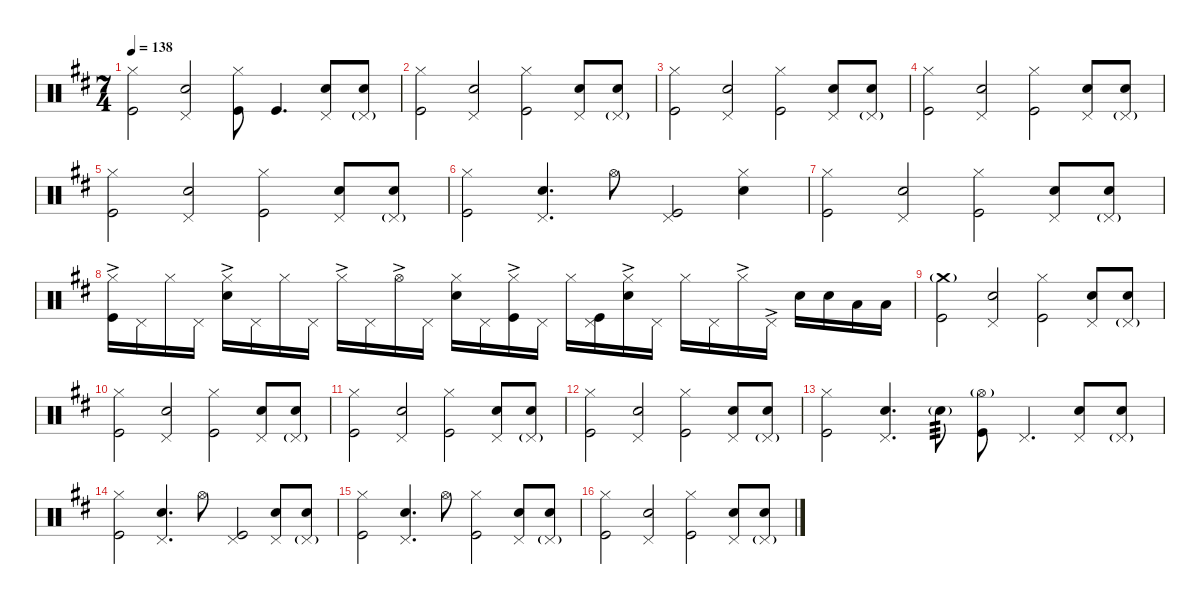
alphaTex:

\defaultSystemsLayout 4
\hideDynamics
\bracketExtendMode nobrackets
\singleTrackTrackNamePolicy hidden
\multiTrackTrackNamePolicy hidden
\firstSystemTrackNameMode fullname
\firstSystemTrackNameOrientation horizontal
\otherSystemsTrackNameOrientation horizontal
\track ("Drums" "drm.") {instrument percussion}
\staff {score}
\articulation defaults
\ts (7 4)
\tempo 138
\clef neutral
\ks d
("Hi-Hat (closed)"{acc forcenatural} "Kick (hit)"{acc forcenatural}).2{dy fff beam Down} ("Pedal Hi-Hat (hit)"{acc forcenatural} "Snare (hit) 2"{acc forcenatural}).2{beam Up} ("Hi-Hat (closed)"{acc forcenatural} "Kick (hit)"{acc forcenatural}).8{beam Down} "Kick (hit)"{acc forcenatural}.4{d beam Up} ("Pedal Hi-Hat (hit)"{acc forcenatural} "Snare (hit) 2"{acc forcenatural}).8{beam Up} ("Pedal Hi-Hat (hit)"{g acc forcenatural} "Snare (hit) 2"{acc forcenatural}).8{beam Up} |
("Hi-Hat (closed)"{acc forcenatural} "Kick (hit)"{acc forcenatural}).2{beam Down} ("Pedal Hi-Hat (hit)"{acc forcenatural} "Snare (hit) 2"{acc forcenatural}).2{beam Up} ("Hi-Hat (closed)"{acc forcenatural} "Kick (hit)"{acc forcenatural}).2{beam Down} ("Pedal Hi-Hat (hit)"{acc forcenatural} "Snare (hit) 2"{acc forcenatural}).8{beam Up} ("Pedal Hi-Hat (hit)"{g acc forcenatural} "Snare (hit) 2"{acc forcenatural}).8{beam Up} |
("Hi-Hat (closed)"{acc forcenatural} "Kick (hit)"{acc forcenatural}).2{beam Down} ("Pedal Hi-Hat (hit)"{acc forcenatural} "Snare (hit) 2"{acc forcenatural}).2{beam Up} ("Hi-Hat (closed)"{acc forcenatural} "Kick (hit)"{acc forcenatural}).2{beam Down} ("Pedal Hi-Hat (hit)"{acc forcenatural} "Snare (hit) 2"{acc forcenatural}).8{beam Up} ("Pedal Hi-Hat (hit)"{g acc forcenatural} "Snare (hit) 2"{acc forcenatural}).8{beam Up} |
("Hi-Hat (closed)"{acc forcenatural} "Kick (hit)"{acc forcenatural}).2{beam Down} ("Pedal Hi-Hat (hit)"{acc forcenatural} "Snare (hit) 2"{acc forcenatural}).2{beam Up} ("Hi-Hat (closed)"{acc forcenatural} "Kick (hit)"{acc forcenatural}).2{beam Down} ("Pedal Hi-Hat (hit)"{acc forcenatural} "Snare (hit) 2"{acc forcenatural}).8{beam Up} ("Pedal Hi-Hat (hit)"{g acc forcenatural} "Snare (hit) 2"{acc forcenatural}).8{beam Up} |
("Hi-Hat (closed)"{acc forcenatural} "Kick (hit)"{acc forcenatural}).2{beam Down} ("Pedal Hi-Hat (hit)"{acc forcenatural} "Snare (hit) 2"{acc forcenatural}).2{beam Up} ("Hi-Hat (closed)"{acc forcenatural} "Kick (hit)"{acc forcenatural}).2{beam Down} ("Pedal Hi-Hat (hit)"{acc forcenatural} "Snare (hit) 2"{acc forcenatural}).8{beam Up} ("Pedal Hi-Hat (hit)"{g acc forcenatural} "Snare (hit) 2"{acc forcenatural}).8{beam Up} |
("Hi-Hat (closed)"{acc forcenatural} "Kick (hit)"{acc forcenatural}).2{beam Down} ("Pedal Hi-Hat (hit)"{acc forcenatural} "Snare (hit) 2"{acc forcenatural}).4{d beam Up} "Hi-Hat (open)"{acc forcenatural}.8{beam Down} ("Pedal Hi-Hat (hit)"{acc forcenatural} "Kick (hit)"{acc forcenatural}).2{beam Up} ("Hi-Hat (closed)"{acc forcenatural} "Snare (hit) 2"{acc forcenatural}).4{beam Down} |
("Hi-Hat (closed)"{acc forcenatural} "Kick (hit)"{acc forcenatural}).2{beam Down} ("Pedal Hi-Hat (hit)"{acc forcenatural} "Snare (hit) 2"{acc forcenatural}).2{beam Up} ("Hi-Hat (closed)"{acc forcenatural} "Kick (hit)"{acc forcenatural}).2{beam Down} ("Pedal Hi-Hat (hit)"{acc forcenatural} "Snare (hit) 2"{acc forcenatural}).8{beam Up} ("Pedal Hi-Hat (hit)"{g acc forcenatural} "Snare (hit) 2"{acc forcenatural}).8{beam Up} |
("Hi-Hat (closed)"{ac acc forcenatural} "Kick (hit)"{acc forcenatural}).16{beam Down} "Pedal Hi-Hat (hit)"{acc forcenatural}.16{beam Down} "Hi-Hat (closed)"{acc forcenatural}.16{beam Down} "Pedal Hi-Hat (hit)"{acc forcenatural}.16{beam Down} ("Hi-Hat (closed)"{ac acc forcenatural} "Snare (hit) 2"{acc forcenatural}).16{beam Down} "Pedal Hi-Hat (hit)"{acc forcenatural}.16{beam Down} "Hi-Hat (closed)"{acc forcenatural}.16{beam Down} "Pedal Hi-Hat (hit)"{acc forcenatural}.16{beam Down} "Hi-Hat (closed)"{ac acc forcenatural}.16{dy ff beam Down} "Pedal Hi-Hat (hit)"{acc forcenatural}.16{dy fff beam Down} "Hi-Hat (open)"{ac acc forcenatural}.16{dy ff beam Down} "Pedal Hi-Hat (hit)"{acc forcenatural}.16{dy fff beam Down} ("Hi-Hat (closed)"{acc forcenatural} "Snare (hit) 2"{acc forcenatural}).16{beam Down} "Pedal Hi-Hat (hit)"{acc forcenatural}.16{beam Down} ("Hi-Hat (closed)"{ac acc forcenatural} "Kick (hit)"{acc forcenatural}).16{beam Down} "Pedal Hi-Hat (hit)"{acc forcenatural}.16{beam Down} "Hi-Hat (closed)"{acc forcenatural}.16{beam Down} ("Pedal Hi-Hat (hit)"{acc forcenatural} "Kick (hit)"{acc forcenatural}).16{beam Down} ("Hi-Hat (closed)"{ac acc forcenatural} "Snare (hit) 2"{acc forcenatural}).16{beam Down} "Pedal Hi-Hat (hit)"{acc forcenatural}.16{beam Down} "Hi-Hat (closed)"{acc forcenatural}.16{beam Down} "Pedal Hi-Hat (hit)"{acc forcenatural}.16{beam Down} "Hi-Hat (closed)"{ac acc forcenatural}.16{dy ff beam Down} "Pedal Hi-Hat (hit)"{ac acc forcenatural}.16{beam Down} "Snare (hit) 2"{acc forcenatural}.16{dy fff beam Down} "Snare (hit) 2"{acc forcenatural}.16{beam Down} "Low Tom (hit)"{acc forcenatural}.16{beam Down} "Low Tom (hit)"{acc forcenatural}.16{beam Down} |
("Crash medium (hit)"{g acc forcenatural} "Kick (hit)"{acc forcenatural}).2{beam Down} ("Pedal Hi-Hat (hit)"{acc forcenatural} "Snare (hit) 2"{acc forcenatural}).2{beam Up} ("Hi-Hat (closed)"{acc forcenatural} "Kick (hit)"{acc forcenatural}).2{beam Down} ("Pedal Hi-Hat (hit)"{acc forcenatural} "Snare (hit) 2"{acc forcenatural}).8{beam Up} ("Pedal Hi-Hat (hit)"{g acc forcenatural} "Snare (hit) 2"{acc forcenatural}).8{beam Up} |
("Hi-Hat (closed)"{acc forcenatural} "Kick (hit)"{acc forcenatural}).2{beam Down} ("Pedal Hi-Hat (hit)"{acc forcenatural} "Snare (hit) 2"{acc forcenatural}).2{beam Up} ("Hi-Hat (closed)"{acc forcenatural} "Kick (hit)"{acc forcenatural}).2{beam Down} ("Pedal Hi-Hat (hit)"{acc forcenatural} "Snare (hit) 2"{acc forcenatural}).8{beam Up} ("Pedal Hi-Hat (hit)"{g acc forcenatural} "Snare (hit) 2"{acc forcenatural}).8{beam Up} |
("Hi-Hat (closed)"{acc forcenatural} "Kick (hit)"{acc forcenatural}).2{beam Down} ("Pedal Hi-Hat (hit)"{acc forcenatural} "Snare (hit) 2"{acc forcenatural}).2{beam Up} ("Hi-Hat (closed)"{acc forcenatural} "Kick (hit)"{acc forcenatural}).2{beam Down} ("Pedal Hi-Hat (hit)"{acc forcenatural} "Snare (hit) 2"{acc forcenatural}).8{beam Up} ("Pedal Hi-Hat (hit)"{g acc forcenatural} "Snare (hit) 2"{acc forcenatural}).8{beam Up} |
("Hi-Hat (closed)"{acc forcenatural} "Kick (hit)"{acc forcenatural}).2{beam Down} ("Pedal Hi-Hat (hit)"{acc forcenatural} "Snare (hit) 2"{acc forcenatural}).2{beam Up} ("Hi-Hat (closed)"{acc forcenatural} "Kick (hit)"{acc forcenatural}).2{beam Down} ("Pedal Hi-Hat (hit)"{acc forcenatural} "Snare (hit) 2"{acc forcenatural}).8{beam Up} ("Pedal Hi-Hat (hit)"{g acc forcenatural} "Snare (hit) 2"{acc forcenatural}).8{beam Up} |
("Hi-Hat (closed)"{acc forcenatural} "Kick (hit)"{acc forcenatural}).2{beam Down} ("Pedal Hi-Hat (hit)"{acc forcenatural} "Snare (hit) 2"{acc forcenatural}).4{d beam Up} "Snare (hit) 2"{g acc forcenatural}.8{tp 3 dy mf beam Down} ("Hi-Hat (open)"{g acc forcenatural} "Kick (hit)"{acc forcenatural}).8{dy fff beam Down} "Pedal Hi-Hat (hit)"{acc forcenatural}.4{d beam Up} ("Pedal Hi-Hat (hit)"{acc forcenatural} "Snare (hit) 2"{acc forcenatural}).8{beam Up} ("Pedal Hi-Hat (hit)"{g acc forcenatural} "Snare (hit) 2"{acc forcenatural}).8{beam Up} |
("Hi-Hat (closed)"{acc forcenatural} "Kick (hit)"{acc forcenatural}).2{beam Down} ("Pedal Hi-Hat (hit)"{acc forcenatural} "Snare (hit) 2"{acc forcenatural}).4{d beam Up} "Hi-Hat (open)"{acc forcenatural}.8{beam Down} ("Pedal Hi-Hat (hit)"{acc forcenatural} "Kick (hit)"{acc forcenatural}).2{beam Up} ("Pedal Hi-Hat (hit)"{acc forcenatural} "Snare (hit) 2"{acc forcenatural}).8{beam Up} ("Pedal Hi-Hat (hit)"{g acc forcenatural} "Snare (hit) 2"{acc forcenatural}).8{beam Up} |
("Hi-Hat (closed)"{acc forcenatural} "Kick (hit)"{acc forcenatural}).2{beam Down} ("Pedal Hi-Hat (hit)"{acc forcenatural} "Snare (hit) 2"{acc forcenatural}).4{d beam Up} "Hi-Hat (open)"{acc forcenatural}.8{beam Down} ("Hi-Hat (closed)"{acc forcenatural} "Kick (hit)"{acc forcenatural}).2{beam Down} ("Pedal Hi-Hat (hit)"{acc forcenatural} "Snare (hit) 2"{acc forcenatural}).8{beam Up} ("Pedal Hi-Hat (hit)"{g acc forcenatural} "Snare (hit) 2"{acc forcenatural}).8{beam Up} |
("Hi-Hat (closed)"{acc forcenatural} "Kick (hit)"{acc forcenatural}).2{beam Down} ("Pedal Hi-Hat (hit)"{acc forcenatural} "Snare (hit) 2"{acc forcenatural}).2{beam Up} ("Hi-Hat (closed)"{acc forcenatural} "Kick (hit)"{acc forcenatural}).2{beam Down} ("Pedal Hi-Hat (hit)"{acc forcenatural} "Snare (hit) 2"{acc forcenatural}).8{beam Up} ("Pedal Hi-Hat (hit)"{g acc forcenatural} "Snare (hit) 2"{acc forcenatural}).8{beam Up}
